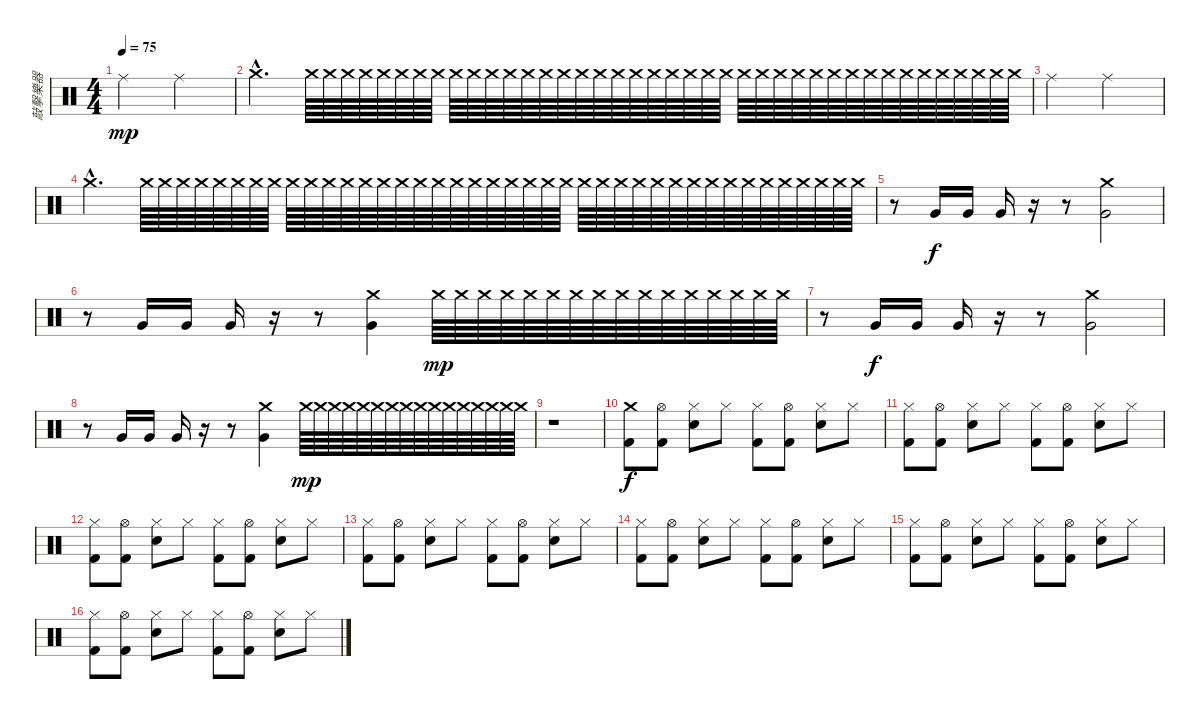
\track ("敲擊樂器" "敲擊樂器") {instrument percussion}
\staff {score}
\articulation defaults
\ts (4 4)
\tempo 75
\clef neutral
\ks c "Ride (middle)".2{dy mp} "Ride (middle)".2
|
"Crash medium (hit)"{hac}.4{d} "Crash medium (hit)".64 "Crash medium (hit)".64 "Crash medium (hit)".64 "Crash medium (hit)".64 "Crash medium (hit)".64 "Crash medium (hit)".64 "Crash medium (hit)".64 "Crash medium (hit)".64 "Crash medium (hit)".64 "Crash medium (hit)".64 "Crash medium (hit)".64 "Crash medium (hit)".64 "Crash medium (hit)".64 "Crash medium (hit)".64 "Crash medium (hit)".64 "Crash medium (hit)".64 "Crash medium (hit)".64 "Crash medium (hit)".64 "Crash medium (hit)".64 "Crash medium (hit)".64 "Crash medium (hit)".64 "Crash medium (hit)".64 "Crash medium (hit)".64 "Crash medium (hit)".64 "Crash medium (hit)".64 "Crash medium (hit)".64 "Crash medium (hit)".64 "Crash medium (hit)".64 "Crash medium (hit)".64 "Crash medium (hit)".64 "Crash medium (hit)".64 "Crash medium (hit)".64 "Crash medium (hit)".64 "Crash medium (hit)".64 "Crash medium (hit)".64 "Crash medium (hit)".64 "Crash medium (hit)".64 "Crash medium (hit)".64 "Crash medium (hit)".64 "Crash medium (hit)".64 |
"Ride (middle)".2 "Ride (middle)".2 |
"Crash medium (hit)"{hac}.4{d} "Crash medium (hit)".64 "Crash medium (hit)".64 "Crash medium (hit)".64 "Crash medium (hit)".64 "Crash medium (hit)".64 "Crash medium (hit)".64 "Crash medium (hit)".64 "Crash medium (hit)".64 "Crash medium (hit)".64 "Crash medium (hit)".64 "Crash medium (hit)".64 "Crash medium (hit)".64 "Crash medium (hit)".64 "Crash medium (hit)".64 "Crash medium (hit)".64 "Crash medium (hit)".64 "Crash medium (hit)".64 "Crash medium (hit)".64 "Crash medium (hit)".64 "Crash medium (hit)".64 "Crash medium (hit)".64 "Crash medium (hit)".64 "Crash medium (hit)".64 "Crash medium (hit)".64 "Crash medium (hit)".64 "Crash medium (hit)".64 "Crash medium (hit)".64 "Crash medium (hit)".64 "Crash medium (hit)".64 "Crash medium (hit)".64 "Crash medium (hit)".64 "Crash medium (hit)".64 "Crash medium (hit)".64 "Crash medium (hit)".64 "Crash medium (hit)".64 "Crash medium (hit)".64 "Crash medium (hit)".64 "Crash medium (hit)".64 "Crash medium (hit)".64 "Crash medium (hit)".64 |
r.8 "Very Low Tom (hit)".16{dy f} "Very Low Tom (hit)".16 "Very Low Tom (hit)".16 r.16 r.8 ("Crash medium (hit)" "Very Low Tom (hit)").2 |
r.8 "Very Low Tom (hit)".16 "Very Low Tom (hit)".16 "Very Low Tom (hit)".16 r.16 r.8 ("Crash medium (hit)" "Very Low Tom (hit)").4 "Crash medium (hit)".64{dy mp} "Crash medium (hit)".64 "Crash medium (hit)".64 "Crash medium (hit)".64 "Crash medium (hit)".64 "Crash medium (hit)".64 "Crash medium (hit)".64 "Crash medium (hit)".64 "Crash medium (hit)".64 "Crash medium (hit)".64 "Crash medium (hit)".64 "Crash medium (hit)".64 "Crash medium (hit)".64 "Crash medium (hit)".64 "Crash medium (hit)".64 "Crash medium (hit)".64 |
r.8 "Very Low Tom (hit)".16{dy f} "Very Low Tom (hit)".16 "Very Low Tom (hit)".16 r.16 r.8 ("Crash medium (hit)" "Very Low Tom (hit)").2 |
r.8 "Very Low Tom (hit)".16 "Very Low Tom (hit)".16 "Very Low Tom (hit)".16 r.16 r.8 ("Crash medium (hit)" "Very Low Tom (hit)").4 "Crash medium (hit)".64{dy mp} "Crash medium (hit)".64 "Crash medium (hit)".64 "Crash medium (hit)".64 "Crash medium (hit)".64 "Crash medium (hit)".64 "Crash medium (hit)".64 "Crash medium (hit)".64 "Crash medium (hit)".64 "Crash medium (hit)".64 "Crash medium (hit)".64 "Crash medium (hit)".64 "Crash medium (hit)".64 "Crash medium (hit)".64 "Crash medium (hit)".64 "Crash medium (hit)".64 |
r.1 |
("Crash medium (hit)" "Kick (hit) 2").8{dy f} ("Hi-Hat (open)" "Kick (hit) 2").8 ("Hi-Hat (closed)" "Snare (hit) 2").8 "Hi-Hat (closed)".8 ("Hi-Hat (closed)" "Kick (hit) 2").8 ("Hi-Hat (open)" "Kick (hit) 2").8 ("Hi-Hat (closed)" "Snare (hit) 2").8 "Hi-Hat (closed)".8 |
("Hi-Hat (closed)" "Kick (hit) 2").8 ("Hi-Hat (open)" "Kick (hit) 2").8 ("Hi-Hat (closed)" "Snare (hit) 2").8 "Hi-Hat (closed)".8 ("Hi-Hat (closed)" "Kick (hit) 2").8 ("Hi-Hat (open)" "Kick (hit) 2").8 ("Hi-Hat (closed)" "Snare (hit) 2").8 "Hi-Hat (closed)".8 |
("Hi-Hat (closed)" "Kick (hit) 2").8 ("Hi-Hat (open)" "Kick (hit) 2").8 ("Hi-Hat (closed)" "Snare (hit) 2").8 "Hi-Hat (closed)".8 ("Hi-Hat (closed)" "Kick (hit) 2").8 ("Hi-Hat (open)" "Kick (hit) 2").8 ("Hi-Hat (closed)" "Snare (hit) 2").8 "Hi-Hat (closed)".8 |
("Hi-Hat (closed)" "Kick (hit) 2").8 ("Hi-Hat (open)" "Kick (hit) 2").8 ("Hi-Hat (closed)" "Snare (hit) 2").8 "Hi-Hat (closed)".8 ("Hi-Hat (closed)" "Kick (hit) 2").8 ("Hi-Hat (open)" "Kick (hit) 2").8 ("Hi-Hat (closed)" "Snare (hit) 2").8 "Hi-Hat (closed)".8 |
("Hi-Hat (closed)" "Kick (hit) 2").8 ("Hi-Hat (open)" "Kick (hit) 2").8 ("Hi-Hat (closed)" "Snare (hit) 2").8 "Hi-Hat (closed)".8 ("Hi-Hat (closed)" "Kick (hit) 2").8 ("Hi-Hat (open)" "Kick (hit) 2").8 ("Hi-Hat (closed)" "Snare (hit) 2").8 "Hi-Hat (closed)".8 |
("Hi-Hat (closed)" "Kick (hit) 2").8 ("Hi-Hat (open)" "Kick (hit) 2").8 ("Hi-Hat (closed)" "Snare (hit) 2").8 "Hi-Hat (closed)".8 ("Hi-Hat (closed)" "Kick (hit) 2").8 ("Hi-Hat (open)" "Kick (hit) 2").8 ("Hi-Hat (closed)" "Snare (hit) 2").8 "Hi-Hat (closed)".8 |
("Hi-Hat (closed)" "Kick (hit) 2").8 ("Hi-Hat (open)" "Kick (hit) 2").8 ("Hi-Hat (closed)" "Snare (hit) 2").8 "Hi-Hat (closed)".8 ("Hi-Hat (closed)" "Kick (hit) 2").8 ("Hi-Hat (open)" "Kick (hit) 2").8 ("Hi-Hat (closed)" "Snare (hit) 2").8 "Hi-Hat (closed)".8
